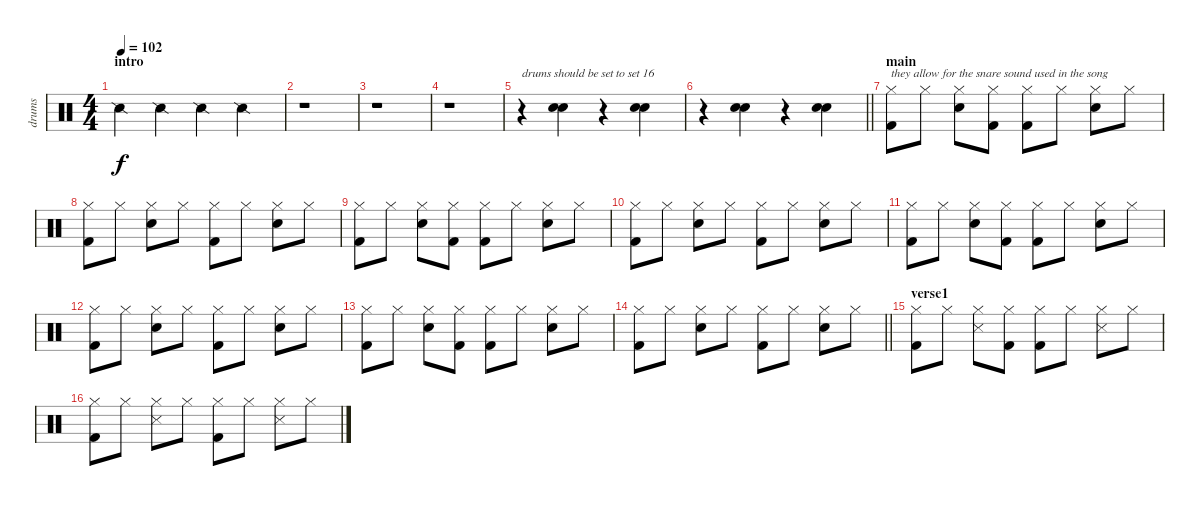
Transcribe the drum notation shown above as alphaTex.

\track ("drums" "drums") {instrument percussion}
\staff {score}
\articulation defaults
\ts (4 4)
\section ("" "intro")
\tempo 102
\clef neutral
\ks c "Snare (side stick) 2".4{dy f} "Snare (side stick) 2".4 "Snare (side stick) 2".4 "Snare (side stick) 2".4
|
r.1 |
r.1 |
r.1 |
r.4{txt "drums should be set to set 16"} ("Hand Clap (hit)" "Snare (hit) 2").4 r.4 ("Hand Clap (hit)" "Snare (hit) 2").4 |
\barLineRight lightlight
r.4 ("Hand Clap (hit)" "Snare (hit) 2").4 r.4 ("Hand Clap (hit)" "Snare (hit) 2").4 |
\section ("" "main")
("Hi-Hat (closed)" "Kick (hit) 2").8{txt "they allow for the snare sound used in the song"} "Hi-Hat (closed)".8 ("Hi-Hat (closed)" "Electric Snare (hit)").8 ("Hi-Hat (closed)" "Kick (hit) 2").8 ("Hi-Hat (closed)" "Kick (hit) 2").8 "Hi-Hat (closed)".8 ("Hi-Hat (closed)" "Electric Snare (hit)").8 "Hi-Hat (closed)".8 |
("Hi-Hat (closed)" "Kick (hit) 2").8 "Hi-Hat (closed)".8 ("Hi-Hat (closed)" "Electric Snare (hit)").8 "Hi-Hat (closed)".8 ("Hi-Hat (closed)" "Kick (hit) 2").8 "Hi-Hat (closed)".8 ("Hi-Hat (closed)" "Electric Snare (hit)").8 "Hi-Hat (closed)".8 |
("Hi-Hat (closed)" "Kick (hit) 2").8 "Hi-Hat (closed)".8 ("Hi-Hat (closed)" "Electric Snare (hit)").8 ("Hi-Hat (closed)" "Kick (hit) 2").8 ("Hi-Hat (closed)" "Kick (hit) 2").8 "Hi-Hat (closed)".8 ("Hi-Hat (closed)" "Electric Snare (hit)").8 "Hi-Hat (closed)".8 |
("Hi-Hat (closed)" "Kick (hit) 2").8 "Hi-Hat (closed)".8 ("Hi-Hat (closed)" "Electric Snare (hit)").8 "Hi-Hat (closed)".8 ("Hi-Hat (closed)" "Kick (hit) 2").8 "Hi-Hat (closed)".8 ("Hi-Hat (closed)" "Electric Snare (hit)").8 "Hi-Hat (closed)".8 |
("Hi-Hat (closed)" "Kick (hit) 2").8 "Hi-Hat (closed)".8 ("Hi-Hat (closed)" "Electric Snare (hit)").8 ("Hi-Hat (closed)" "Kick (hit) 2").8 ("Hi-Hat (closed)" "Kick (hit) 2").8 "Hi-Hat (closed)".8 ("Hi-Hat (closed)" "Electric Snare (hit)").8 "Hi-Hat (closed)".8 |
("Hi-Hat (closed)" "Kick (hit) 2").8 "Hi-Hat (closed)".8 ("Hi-Hat (closed)" "Electric Snare (hit)").8 "Hi-Hat (closed)".8 ("Hi-Hat (closed)" "Kick (hit) 2").8 "Hi-Hat (closed)".8 ("Hi-Hat (closed)" "Electric Snare (hit)").8 "Hi-Hat (closed)".8 |
("Hi-Hat (closed)" "Kick (hit) 2").8 "Hi-Hat (closed)".8 ("Hi-Hat (closed)" "Electric Snare (hit)").8 ("Hi-Hat (closed)" "Kick (hit) 2").8 ("Hi-Hat (closed)" "Kick (hit) 2").8 "Hi-Hat (closed)".8 ("Hi-Hat (closed)" "Electric Snare (hit)").8 "Hi-Hat (closed)".8 |
\barLineRight lightlight
("Hi-Hat (closed)" "Kick (hit) 2").8 "Hi-Hat (closed)".8 ("Hi-Hat (closed)" "Electric Snare (hit)").8 "Hi-Hat (closed)".8 ("Hi-Hat (closed)" "Kick (hit) 2").8 "Hi-Hat (closed)".8 ("Hi-Hat (closed)" "Electric Snare (hit)").8 "Hi-Hat (closed)".8 |
\section ("" "verse1")
("Hi-Hat (closed)" "Kick (hit) 2").8 "Hi-Hat (closed)".8 ("Hi-Hat (closed)" "Snare (side stick) 3").8 ("Hi-Hat (closed)" "Kick (hit) 2").8 ("Hi-Hat (closed)" "Kick (hit) 2").8 "Hi-Hat (closed)".8 ("Hi-Hat (closed)" "Snare (side stick) 3").8 "Hi-Hat (closed)".8 |
("Hi-Hat (closed)" "Kick (hit) 2").8 "Hi-Hat (closed)".8 ("Hi-Hat (closed)" "Snare (side stick) 3").8 "Hi-Hat (closed)".8 ("Hi-Hat (closed)" "Kick (hit) 2").8 "Hi-Hat (closed)".8 ("Hi-Hat (closed)" "Snare (side stick) 3").8 "Hi-Hat (closed)".8
